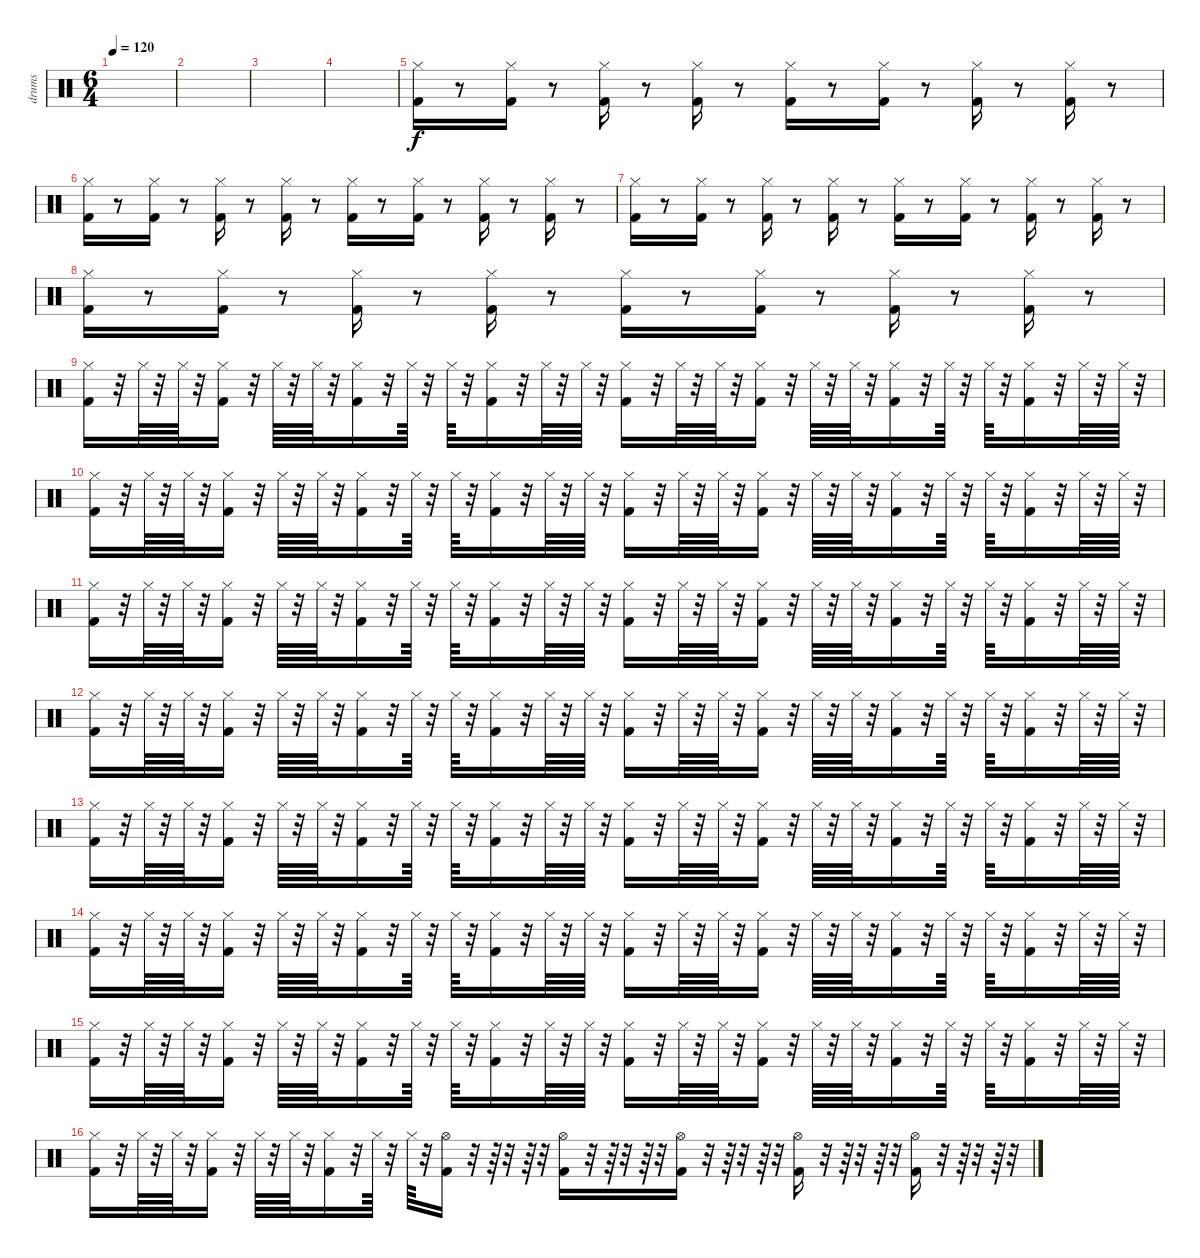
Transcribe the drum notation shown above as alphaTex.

\track ("drums" "drums") {instrument percussion}
\staff {score}
\articulation defaults
\ts (6 4)
\tempo 120
\clef neutral
\ks c
|
|
|
|
("Hi-Hat (closed)" "Kick (hit) 2").16 r.8 ("Hi-Hat (closed)" "Kick (hit) 2").16 r.8 ("Hi-Hat (closed)" "Kick (hit) 2").16 r.8 ("Hi-Hat (closed)" "Kick (hit) 2").16 r.8 ("Hi-Hat (closed)" "Kick (hit) 2").16 r.8 ("Hi-Hat (closed)" "Kick (hit) 2").16 r.8 ("Hi-Hat (closed)" "Kick (hit) 2").16 r.8 ("Hi-Hat (closed)" "Kick (hit) 2").16 r.8 |
("Hi-Hat (closed)" "Kick (hit) 2").16 r.8 ("Hi-Hat (closed)" "Kick (hit) 2").16 r.8 ("Hi-Hat (closed)" "Kick (hit) 2").16 r.8 ("Hi-Hat (closed)" "Kick (hit) 2").16 r.8 ("Hi-Hat (closed)" "Kick (hit) 2").16 r.8 ("Hi-Hat (closed)" "Kick (hit) 2").16 r.8 ("Hi-Hat (closed)" "Kick (hit) 2").16 r.8 ("Hi-Hat (closed)" "Kick (hit) 2").16 r.8 |
("Hi-Hat (closed)" "Kick (hit) 2").16 r.8 ("Hi-Hat (closed)" "Kick (hit) 2").16 r.8 ("Hi-Hat (closed)" "Kick (hit) 2").16 r.8 ("Hi-Hat (closed)" "Kick (hit) 2").16 r.8 ("Hi-Hat (closed)" "Kick (hit) 2").16 r.8 ("Hi-Hat (closed)" "Kick (hit) 2").16 r.8 ("Hi-Hat (closed)" "Kick (hit) 2").16 r.8 ("Hi-Hat (closed)" "Kick (hit) 2").16 r.8 |
("Hi-Hat (closed)" "Kick (hit) 2").16 r.8 ("Hi-Hat (closed)" "Kick (hit) 2").16 r.8 ("Hi-Hat (closed)" "Kick (hit) 2").16 r.8 ("Hi-Hat (closed)" "Kick (hit) 2").16 r.8 ("Hi-Hat (closed)" "Kick (hit) 2").16 r.8 ("Hi-Hat (closed)" "Kick (hit) 2").16 r.8 ("Hi-Hat (closed)" "Kick (hit) 2").16 r.8 ("Hi-Hat (closed)" "Kick (hit) 2").16 r.8 |
("Hi-Hat (closed)" "Kick (hit) 2").16 r.32 "Hi-Hat (closed)".64 r.32 "Hi-Hat (closed)".64 r.32 ("Hi-Hat (closed)" "Kick (hit) 2").16 r.32 "Hi-Hat (closed)".64 r.32 "Hi-Hat (closed)".64 r.32 ("Hi-Hat (closed)" "Kick (hit) 2").16 r.32 "Hi-Hat (closed)".64 r.32 "Hi-Hat (closed)".64 r.32 ("Hi-Hat (closed)" "Kick (hit) 2").16 r.32 "Hi-Hat (closed)".64 r.32 "Hi-Hat (closed)".64 r.32 ("Hi-Hat (closed)" "Kick (hit) 2").16 r.32 "Hi-Hat (closed)".64 r.32 "Hi-Hat (closed)".64 r.32 ("Hi-Hat (closed)" "Kick (hit) 2").16 r.32 "Hi-Hat (closed)".64 r.32 "Hi-Hat (closed)".64 r.32 ("Hi-Hat (closed)" "Kick (hit) 2").16 r.32 "Hi-Hat (closed)".64 r.32 "Hi-Hat (closed)".64 r.32 ("Hi-Hat (closed)" "Kick (hit) 2").16 r.32 "Hi-Hat (closed)".64 r.32 "Hi-Hat (closed)".64 r.32 |
("Hi-Hat (closed)" "Kick (hit) 2").16 r.32 "Hi-Hat (closed)".64 r.32 "Hi-Hat (closed)".64 r.32 ("Hi-Hat (closed)" "Kick (hit) 2").16 r.32 "Hi-Hat (closed)".64 r.32 "Hi-Hat (closed)".64 r.32 ("Hi-Hat (closed)" "Kick (hit) 2").16 r.32 "Hi-Hat (closed)".64 r.32 "Hi-Hat (closed)".64 r.32 ("Hi-Hat (closed)" "Kick (hit) 2").16 r.32 "Hi-Hat (closed)".64 r.32 "Hi-Hat (closed)".64 r.32 ("Hi-Hat (closed)" "Kick (hit) 2").16 r.32 "Hi-Hat (closed)".64 r.32 "Hi-Hat (closed)".64 r.32 ("Hi-Hat (closed)" "Kick (hit) 2").16 r.32 "Hi-Hat (closed)".64 r.32 "Hi-Hat (closed)".64 r.32 ("Hi-Hat (closed)" "Kick (hit) 2").16 r.32 "Hi-Hat (closed)".64 r.32 "Hi-Hat (closed)".64 r.32 ("Hi-Hat (closed)" "Kick (hit) 2").16 r.32 "Hi-Hat (closed)".64 r.32 "Hi-Hat (closed)".64 r.32 |
("Hi-Hat (closed)" "Kick (hit) 2").16 r.32 "Hi-Hat (closed)".64 r.32 "Hi-Hat (closed)".64 r.32 ("Hi-Hat (closed)" "Kick (hit) 2").16 r.32 "Hi-Hat (closed)".64 r.32 "Hi-Hat (closed)".64 r.32 ("Hi-Hat (closed)" "Kick (hit) 2").16 r.32 "Hi-Hat (closed)".64 r.32 "Hi-Hat (closed)".64 r.32 ("Hi-Hat (closed)" "Kick (hit) 2").16 r.32 "Hi-Hat (closed)".64 r.32 "Hi-Hat (closed)".64 r.32 ("Hi-Hat (closed)" "Kick (hit) 2").16 r.32 "Hi-Hat (closed)".64 r.32 "Hi-Hat (closed)".64 r.32 ("Hi-Hat (closed)" "Kick (hit) 2").16 r.32 "Hi-Hat (closed)".64 r.32 "Hi-Hat (closed)".64 r.32 ("Hi-Hat (closed)" "Kick (hit) 2").16 r.32 "Hi-Hat (closed)".64 r.32 "Hi-Hat (closed)".64 r.32 ("Hi-Hat (closed)" "Kick (hit) 2").16 r.32 "Hi-Hat (closed)".64 r.32 "Hi-Hat (closed)".64 r.32 |
("Hi-Hat (closed)" "Kick (hit) 2").16 r.32 "Hi-Hat (closed)".64 r.32 "Hi-Hat (closed)".64 r.32 ("Hi-Hat (closed)" "Kick (hit) 2").16 r.32 "Hi-Hat (closed)".64 r.32 "Hi-Hat (closed)".64 r.32 ("Hi-Hat (closed)" "Kick (hit) 2").16 r.32 "Hi-Hat (closed)".64 r.32 "Hi-Hat (closed)".64 r.32 ("Hi-Hat (closed)" "Kick (hit) 2").16 r.32 "Hi-Hat (closed)".64 r.32 "Hi-Hat (closed)".64 r.32 ("Hi-Hat (closed)" "Kick (hit) 2").16 r.32 "Hi-Hat (closed)".64 r.32 "Hi-Hat (closed)".64 r.32 ("Hi-Hat (closed)" "Kick (hit) 2").16 r.32 "Hi-Hat (closed)".64 r.32 "Hi-Hat (closed)".64 r.32 ("Hi-Hat (closed)" "Kick (hit) 2").16 r.32 "Hi-Hat (closed)".64 r.32 "Hi-Hat (closed)".64 r.32 ("Hi-Hat (closed)" "Kick (hit) 2").16 r.32 "Hi-Hat (closed)".64 r.32 "Hi-Hat (closed)".64 r.32 |
("Hi-Hat (closed)" "Kick (hit) 2").16 r.32 "Hi-Hat (closed)".64 r.32 "Hi-Hat (closed)".64 r.32 ("Hi-Hat (closed)" "Kick (hit) 2").16 r.32 "Hi-Hat (closed)".64 r.32 "Hi-Hat (closed)".64 r.32 ("Hi-Hat (closed)" "Kick (hit) 2").16 r.32 "Hi-Hat (closed)".64 r.32 "Hi-Hat (closed)".64 r.32 ("Hi-Hat (closed)" "Kick (hit) 2").16 r.32 "Hi-Hat (closed)".64 r.32 "Hi-Hat (closed)".64 r.32 ("Hi-Hat (closed)" "Kick (hit) 2").16 r.32 "Hi-Hat (closed)".64 r.32 "Hi-Hat (closed)".64 r.32 ("Hi-Hat (closed)" "Kick (hit) 2").16 r.32 "Hi-Hat (closed)".64 r.32 "Hi-Hat (closed)".64 r.32 ("Hi-Hat (closed)" "Kick (hit) 2").16 r.32 "Hi-Hat (closed)".64 r.32 "Hi-Hat (closed)".64 r.32 ("Hi-Hat (closed)" "Kick (hit) 2").16 r.32 "Hi-Hat (closed)".64 r.32 "Hi-Hat (closed)".64 r.32 |
("Hi-Hat (closed)" "Kick (hit) 2").16 r.32 "Hi-Hat (closed)".64 r.32 "Hi-Hat (closed)".64 r.32 ("Hi-Hat (closed)" "Kick (hit) 2").16 r.32 "Hi-Hat (closed)".64 r.32 "Hi-Hat (closed)".64 r.32 ("Hi-Hat (closed)" "Kick (hit) 2").16 r.32 "Hi-Hat (closed)".64 r.32 "Hi-Hat (closed)".64 r.32 ("Hi-Hat (closed)" "Kick (hit) 2").16 r.32 "Hi-Hat (closed)".64 r.32 "Hi-Hat (closed)".64 r.32 ("Hi-Hat (closed)" "Kick (hit) 2").16 r.32 "Hi-Hat (closed)".64 r.32 "Hi-Hat (closed)".64 r.32 ("Hi-Hat (closed)" "Kick (hit) 2").16 r.32 "Hi-Hat (closed)".64 r.32 "Hi-Hat (closed)".64 r.32 ("Hi-Hat (closed)" "Kick (hit) 2").16 r.32 "Hi-Hat (closed)".64 r.32 "Hi-Hat (closed)".64 r.32 ("Hi-Hat (closed)" "Kick (hit) 2").16 r.32 "Hi-Hat (closed)".64 r.32 "Hi-Hat (closed)".64 r.32 |
("Hi-Hat (closed)" "Kick (hit) 2").16 r.32 "Hi-Hat (closed)".64 r.32 "Hi-Hat (closed)".64 r.32 ("Hi-Hat (closed)" "Kick (hit) 2").16 r.32 "Hi-Hat (closed)".64 r.32 "Hi-Hat (closed)".64 r.32 ("Hi-Hat (closed)" "Kick (hit) 2").16 r.32 "Hi-Hat (closed)".64 r.32 "Hi-Hat (closed)".64 r.32 ("Hi-Hat (closed)" "Kick (hit) 2").16 r.32 "Hi-Hat (closed)".64 r.32 "Hi-Hat (closed)".64 r.32 ("Hi-Hat (closed)" "Kick (hit) 2").16 r.32 "Hi-Hat (closed)".64 r.32 "Hi-Hat (closed)".64 r.32 ("Hi-Hat (closed)" "Kick (hit) 2").16 r.32 "Hi-Hat (closed)".64 r.32 "Hi-Hat (closed)".64 r.32 ("Hi-Hat (closed)" "Kick (hit) 2").16 r.32 "Hi-Hat (closed)".64 r.32 "Hi-Hat (closed)".64 r.32 ("Hi-Hat (closed)" "Kick (hit) 2").16 r.32 "Hi-Hat (closed)".64 r.32 "Hi-Hat (closed)".64 r.32 |
("Hi-Hat (closed)" "Kick (hit) 2").16 r.32 "Hi-Hat (closed)".64 r.32 "Hi-Hat (closed)".64 r.32 ("Hi-Hat (closed)" "Kick (hit) 2").16 r.32 "Hi-Hat (closed)".64 r.32 "Hi-Hat (closed)".64 r.32 ("Hi-Hat (closed)" "Kick (hit) 2").16 r.32 "Hi-Hat (closed)".64 r.32 "Hi-Hat (closed)".64 r.32 ("Hi-Hat (open)" "Kick (hit) 2").16 r.32 r.64 r.32 r.64 r.32 ("Hi-Hat (open)" "Kick (hit) 2").16 r.32 r.64 r.32 r.64 r.32 ("Hi-Hat (open)" "Kick (hit) 2").16 r.32 r.64 r.32 r.64 r.32 ("Hi-Hat (open)" "Kick (hit) 2").16 r.32 r.64 r.32 r.64 r.32 ("Hi-Hat (open)" "Kick (hit) 2").16 r.32 r.64 r.32 r.64 r.32
